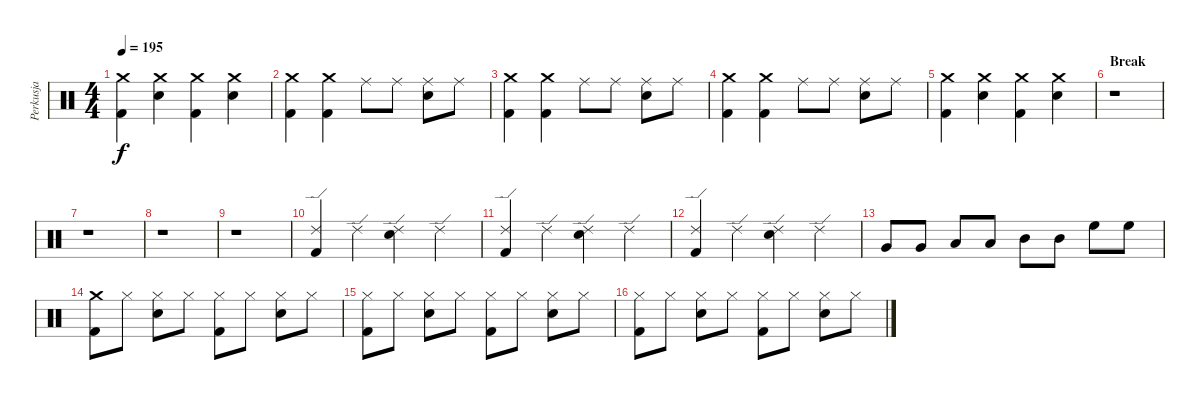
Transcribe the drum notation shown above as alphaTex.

\track ("Perkusja" "Perkusja") {instrument percussion}
\staff {score}
\articulation defaults
\ts (4 4)
\tempo 195
\clef neutral
\ks c
("Crash medium (hit)" "Kick (hit) 2").4{dy f} ("Crash medium (hit)" "Snare (hit) 2").4 ("Crash medium (hit)" "Kick (hit) 2").4 ("Crash medium (hit)" "Snare (hit) 2").4 |
("Crash medium (hit)" "Kick (hit) 2").4 ("Crash medium (hit)" "Kick (hit) 2").4 "Ride (middle)".8 "Ride (middle)".8 ("Ride (middle)" "Snare (hit) 2").8 "Ride (middle)".8 |
("Crash medium (hit)" "Kick (hit) 2").4 ("Crash medium (hit)" "Kick (hit) 2").4 "Ride (middle)".8 "Ride (middle)".8 ("Ride (middle)" "Snare (hit) 2").8 "Ride (middle)".8 |
("Crash medium (hit)" "Kick (hit) 2").4 ("Crash medium (hit)" "Kick (hit) 2").4 "Ride (middle)".8 "Ride (middle)".8 ("Ride (middle)" "Snare (hit) 2").8 "Ride (middle)".8 |
("Crash medium (hit)" "Kick (hit) 2").4 ("Crash medium (hit)" "Snare (hit) 2").4 ("Crash medium (hit)" "Kick (hit) 2").4 ("Crash medium (hit)" "Snare (hit) 2").4 |
\section ("" "Break")
r.1 |
r.1 |
r.1 |
r.1 |
("Ride (edge) 2" "Kick (hit) 2").4 "Ride (edge) 2".4 ("Ride (edge) 2" "Snare (hit) 2").4 "Ride (edge) 2".4 |
("Ride (edge) 2" "Kick (hit) 2").4 "Ride (edge) 2".4 ("Ride (edge) 2" "Snare (hit) 2").4 "Ride (edge) 2".4 |
("Ride (edge) 2" "Kick (hit) 2").4 "Ride (edge) 2".4 ("Ride (edge) 2" "Snare (hit) 2").4 "Ride (edge) 2".4 |
"Very Low Tom (hit)".8 "Very Low Tom (hit)".8 "Low Tom (hit)".8 "Low Tom (hit)".8 "Mid Tom (hit)".8 "Mid Tom (hit)".8 "High Floor Tom (hit)".8 "High Floor Tom (hit)".8 |
("Crash medium (hit)" "Kick (hit) 2").8 "Hi-Hat (closed)".8 ("Hi-Hat (closed)" "Snare (hit) 2").8 "Hi-Hat (closed)".8 ("Hi-Hat (closed)" "Kick (hit) 2").8 "Hi-Hat (closed)".8 ("Hi-Hat (closed)" "Snare (hit) 2").8 "Hi-Hat (closed)".8 |
("Hi-Hat (closed)" "Kick (hit) 2").8 "Hi-Hat (closed)".8 ("Hi-Hat (closed)" "Snare (hit) 2").8 "Hi-Hat (closed)".8 ("Hi-Hat (closed)" "Kick (hit) 2").8 "Hi-Hat (closed)".8 ("Hi-Hat (closed)" "Snare (hit) 2").8 "Hi-Hat (closed)".8 |
("Hi-Hat (closed)" "Kick (hit) 2").8 "Hi-Hat (closed)".8 ("Hi-Hat (closed)" "Snare (hit) 2").8 "Hi-Hat (closed)".8 ("Hi-Hat (closed)" "Kick (hit) 2").8 "Hi-Hat (closed)".8 ("Hi-Hat (closed)" "Snare (hit) 2").8 "Hi-Hat (closed)".8
